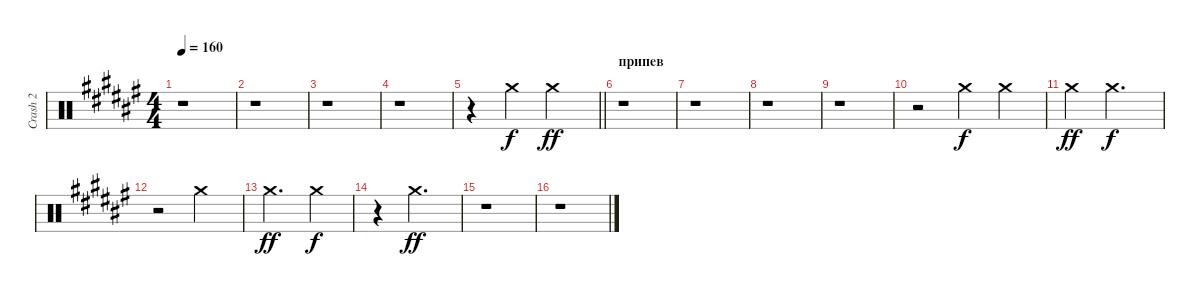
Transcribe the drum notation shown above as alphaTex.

\track ("Crash 2" "Crash 2") {instrument percussion}
\staff {score}
\articulation defaults
\ts (4 4)
\tempo 160
\clef neutral
\ks d#minor
r.1{dy ff} |
r.1 |
r.1 |
r.1 |
\barLineRight lightlight
r.4 "Crash medium (hit)".4{dy f} "Crash medium (hit)".2{dy ff} |
\section ("" "припев")
r.1 |
r.1 |
r.1 |
r.1 |
r.2 "Crash medium (hit)".4{dy f} "Crash medium (hit)".4 |
"Crash medium (hit)".4{dy ff} "Crash medium (hit)".2{d dy f} |
r.2 "Crash medium (hit)".2 |
"Crash medium (hit)".2{d dy ff} "Crash medium (hit)".4{dy f} |
r.4 "Crash medium (hit)".2{d dy ff} |
r.1 |
r.1
